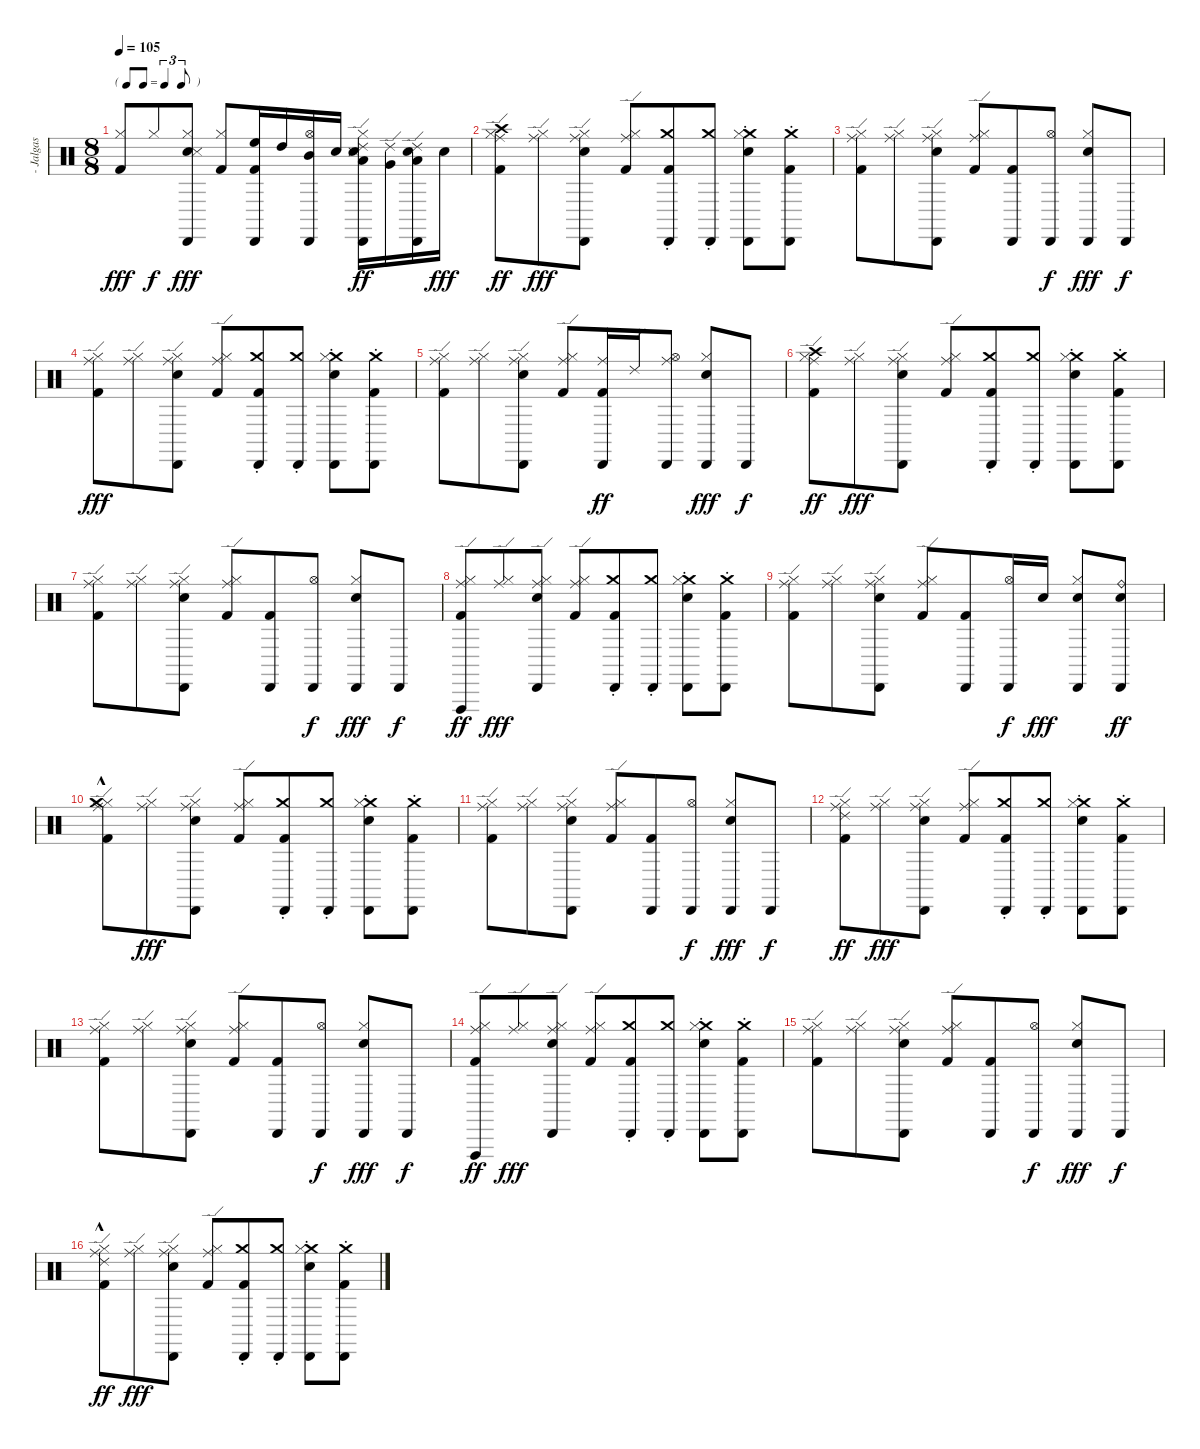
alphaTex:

\track (" - Jalgas -" " - Jalgas ") {instrument percussion}
\staff {score}
\articulation defaults
\ts (8 8)
\tf triplet8th
\tempo 105
\clef neutral
\ks c
("Kick (hit) 2" "Hi-Hat (closed)").8{dy fff} "Hi-Hat (closed)".8{dy f} ("Electric Snare (hit)" "Snare (side stick) 3" "Hi-Hat (closed)" "Cabasa (hit)").8{dy fff} ("Kick (hit) 2" "Hi-Hat (closed)").8 ("Kick (hit) 2" "Cabasa (hit)" "High Floor Tom (hit)").16 "High Tom (hit)".16 ("Hi-Hat (open)" "Cabasa (hit)" "Mid Tom (hit)").16 "Electric Snare (hit)".16 ("Electric Snare (hit)" "Snare (side stick) 3" "Hi-Hat (closed)" "Cabasa (hit)" "Low Tom (hit)" "Ride (edge) 2").16{dy ff} ("Very Low Tom (hit)" "Ride (edge) 2").16 ("Electric Snare (hit)" "Cabasa (hit)" "Low Floor Tom (hit)" "Ride (edge) 2").16 "Electric Snare (hit)".16{dy fff} |
("Ride (edge)" "Kick (hit) 2" "Hi-Hat (closed)" "Crash high (hit)").8{dy ff} ("Ride (edge)" "Hi-Hat (closed)").8{dy fff} ("Ride (edge)" "Electric Snare (hit)" "Hi-Hat (closed)" "Cabasa (hit)").8 ("Ride (edge)" "Kick (hit) 2" "Hi-Hat (closed)").8 ("Crash medium (choke)" "Kick (hit) 2" "Cabasa (hit)").8 ("Crash medium (choke)" "Cabasa (hit)").8 ("Crash medium (choke)" "Electric Snare (hit)" "Hi-Hat (closed)" "Cabasa (hit)").8 ("Crash medium (choke)" "Kick (hit) 2" "Cabasa (hit)").8 |
("Ride (edge)" "Kick (hit) 2" "Hi-Hat (closed)").8 ("Ride (edge)" "Hi-Hat (closed)").8 ("Ride (edge)" "Electric Snare (hit)" "Hi-Hat (closed)" "Cabasa (hit)").8 ("Ride (edge)" "Kick (hit) 2" "Hi-Hat (closed)").8 ("Kick (hit) 2" "Cabasa (hit)").8 ("Hi-Hat (open)" "Cabasa (hit)").8{dy f} ("Electric Snare (hit)" "Hi-Hat (closed)" "Cabasa (hit)").8{dy fff} "Cabasa (hit)".8{dy f} |
("Ride (edge)" "Kick (hit) 2" "Hi-Hat (closed)").8{dy fff} ("Ride (edge)" "Hi-Hat (closed)").8 ("Ride (edge)" "Electric Snare (hit)" "Hi-Hat (closed)" "Cabasa (hit)").8 ("Ride (edge)" "Kick (hit) 2" "Hi-Hat (closed)").8 ("Crash medium (choke)" "Kick (hit) 2" "Cabasa (hit)").8 ("Crash medium (choke)" "Cabasa (hit)").8 ("Crash medium (choke)" "Electric Snare (hit)" "Hi-Hat (closed)" "Cabasa (hit)").8 ("Crash medium (choke)" "Kick (hit) 2" "Cabasa (hit)").8 |
("Ride (edge)" "Kick (hit) 2" "Hi-Hat (closed)").8 ("Ride (edge)" "Hi-Hat (closed)").8 ("Ride (edge)" "Electric Snare (hit)" "Hi-Hat (closed)" "Cabasa (hit)").8 ("Ride (edge)" "Kick (hit) 2" "Hi-Hat (closed)").8 ("Kick (hit) 2" "Cabasa (hit)" "Ride (middle)").16{dy ff} "Ride (edge) 2".16 ("Hi-Hat (open)" "Cabasa (hit)" "Ride (middle)").8 ("Electric Snare (hit)" "Hi-Hat (closed)" "Cabasa (hit)").8{dy fff} "Cabasa (hit)".8{dy f} |
("Ride (edge)" "Kick (hit) 2" "Hi-Hat (closed)" "Crash high (hit)").8{dy ff} ("Ride (edge)" "Hi-Hat (closed)").8{dy fff} ("Ride (edge)" "Electric Snare (hit)" "Hi-Hat (closed)" "Cabasa (hit)").8 ("Ride (edge)" "Kick (hit) 2" "Hi-Hat (closed)").8 ("Crash medium (choke)" "Kick (hit) 2" "Cabasa (hit)").8 ("Crash medium (choke)" "Cabasa (hit)").8 ("Crash medium (choke)" "Electric Snare (hit)" "Hi-Hat (closed)" "Cabasa (hit)").8 ("Crash medium (choke)" "Kick (hit) 2" "Cabasa (hit)").8 |
("Ride (edge)" "Kick (hit) 2" "Hi-Hat (closed)").8 ("Ride (edge)" "Hi-Hat (closed)").8 ("Ride (edge)" "Electric Snare (hit)" "Hi-Hat (closed)" "Cabasa (hit)").8 ("Ride (edge)" "Kick (hit) 2" "Hi-Hat (closed)").8 ("Kick (hit) 2" "Cabasa (hit)").8 ("Hi-Hat (open)" "Cabasa (hit)").8{dy f} ("Electric Snare (hit)" "Hi-Hat (closed)" "Cabasa (hit)").8{dy fff} "Cabasa (hit)".8{dy f} |
("Ride (edge)" "Kick (hit) 2" "Hi-Hat (closed)" "Vibraslap (hit)").8{dy ff} ("Ride (edge)" "Hi-Hat (closed)").8{dy fff} ("Ride (edge)" "Electric Snare (hit)" "Hi-Hat (closed)" "Cabasa (hit)").8 ("Ride (edge)" "Kick (hit) 2" "Hi-Hat (closed)").8 ("Crash medium (choke)" "Kick (hit) 2" "Cabasa (hit)").8 ("Crash medium (choke)" "Cabasa (hit)").8 ("Crash medium (choke)" "Electric Snare (hit)" "Hi-Hat (closed)" "Cabasa (hit)").8 ("Crash medium (choke)" "Kick (hit) 2" "Cabasa (hit)").8 |
("Ride (edge)" "Kick (hit) 2" "Hi-Hat (closed)").8 ("Ride (edge)" "Hi-Hat (closed)").8 ("Ride (edge)" "Electric Snare (hit)" "Hi-Hat (closed)" "Cabasa (hit)").8 ("Ride (edge)" "Kick (hit) 2" "Hi-Hat (closed)").8 ("Kick (hit) 2" "Cabasa (hit)").8 ("Hi-Hat (open)" "Cabasa (hit)").16{dy f} "Electric Snare (hit)".16{dy fff} ("Electric Snare (hit)" "Hi-Hat (closed)" "Cabasa (hit)").8 ("Electric Snare (hit)" "Cabasa (hit)" "Ride (bell)").8{dy ff} |
("Ride (edge)" "Kick (hit) 2" "Hi-Hat (closed)" "Crash medium (hit)"{hac}).8 ("Ride (edge)" "Hi-Hat (closed)").8{dy fff} ("Ride (edge)" "Electric Snare (hit)" "Hi-Hat (closed)" "Cabasa (hit)").8 ("Ride (edge)" "Kick (hit) 2" "Hi-Hat (closed)").8 ("Crash medium (choke)" "Kick (hit) 2" "Cabasa (hit)").8 ("Crash medium (choke)" "Cabasa (hit)").8 ("Crash medium (choke)" "Electric Snare (hit)" "Hi-Hat (closed)" "Cabasa (hit)").8 ("Crash medium (choke)" "Kick (hit) 2" "Cabasa (hit)").8 |
("Ride (edge)" "Kick (hit) 2" "Hi-Hat (closed)").8 ("Ride (edge)" "Hi-Hat (closed)").8 ("Ride (edge)" "Electric Snare (hit)" "Hi-Hat (closed)" "Cabasa (hit)").8 ("Ride (edge)" "Kick (hit) 2" "Hi-Hat (closed)").8 ("Kick (hit) 2" "Cabasa (hit)").8 ("Hi-Hat (open)" "Cabasa (hit)").8{dy f} ("Electric Snare (hit)" "Hi-Hat (closed)" "Cabasa (hit)").8{dy fff} "Cabasa (hit)".8{dy f} |
("Ride (edge)" "Kick (hit) 2" "Hi-Hat (closed)" "Ride (edge) 2").8{dy ff} ("Ride (edge)" "Hi-Hat (closed)").8{dy fff} ("Ride (edge)" "Electric Snare (hit)" "Hi-Hat (closed)" "Cabasa (hit)").8 ("Ride (edge)" "Kick (hit) 2" "Hi-Hat (closed)").8 ("Crash medium (choke)" "Kick (hit) 2" "Cabasa (hit)").8 ("Crash medium (choke)" "Cabasa (hit)").8 ("Crash medium (choke)" "Electric Snare (hit)" "Hi-Hat (closed)" "Cabasa (hit)").8 ("Crash medium (choke)" "Kick (hit) 2" "Cabasa (hit)").8 |
("Ride (edge)" "Kick (hit) 2" "Hi-Hat (closed)").8 ("Ride (edge)" "Hi-Hat (closed)").8 ("Ride (edge)" "Electric Snare (hit)" "Hi-Hat (closed)" "Cabasa (hit)").8 ("Ride (edge)" "Kick (hit) 2" "Hi-Hat (closed)").8 ("Kick (hit) 2" "Cabasa (hit)").8 ("Hi-Hat (open)" "Cabasa (hit)").8{dy f} ("Electric Snare (hit)" "Hi-Hat (closed)" "Cabasa (hit)").8{dy fff} "Cabasa (hit)".8{dy f} |
("Ride (edge)" "Kick (hit) 2" "Hi-Hat (closed)" "Vibraslap (hit)").8{dy ff} ("Ride (edge)" "Hi-Hat (closed)").8{dy fff} ("Ride (edge)" "Electric Snare (hit)" "Hi-Hat (closed)" "Cabasa (hit)").8 ("Ride (edge)" "Kick (hit) 2" "Hi-Hat (closed)").8 ("Crash medium (choke)" "Kick (hit) 2" "Cabasa (hit)").8 ("Crash medium (choke)" "Cabasa (hit)").8 ("Crash medium (choke)" "Electric Snare (hit)" "Hi-Hat (closed)" "Cabasa (hit)").8 ("Crash medium (choke)" "Kick (hit) 2" "Cabasa (hit)").8 |
("Ride (edge)" "Kick (hit) 2" "Hi-Hat (closed)").8 ("Ride (edge)" "Hi-Hat (closed)").8 ("Ride (edge)" "Electric Snare (hit)" "Hi-Hat (closed)" "Cabasa (hit)").8 ("Ride (edge)" "Kick (hit) 2" "Hi-Hat (closed)").8 ("Kick (hit) 2" "Cabasa (hit)").8 ("Hi-Hat (open)" "Cabasa (hit)").8{dy f} ("Electric Snare (hit)" "Hi-Hat (closed)" "Cabasa (hit)").8{dy fff} "Cabasa (hit)".8{dy f} |
("Ride (edge)" "Kick (hit) 2" "Hi-Hat (closed)" "Ride (edge) 2"{hac}).8{dy ff} ("Ride (edge)" "Hi-Hat (closed)").8{dy fff} ("Ride (edge)" "Electric Snare (hit)" "Hi-Hat (closed)" "Cabasa (hit)").8 ("Ride (edge)" "Kick (hit) 2" "Hi-Hat (closed)").8 ("Crash medium (choke)" "Kick (hit) 2" "Cabasa (hit)").8 ("Crash medium (choke)" "Cabasa (hit)").8 ("Crash medium (choke)" "Electric Snare (hit)" "Hi-Hat (closed)" "Cabasa (hit)").8 ("Crash medium (choke)" "Kick (hit) 2" "Cabasa (hit)").8
